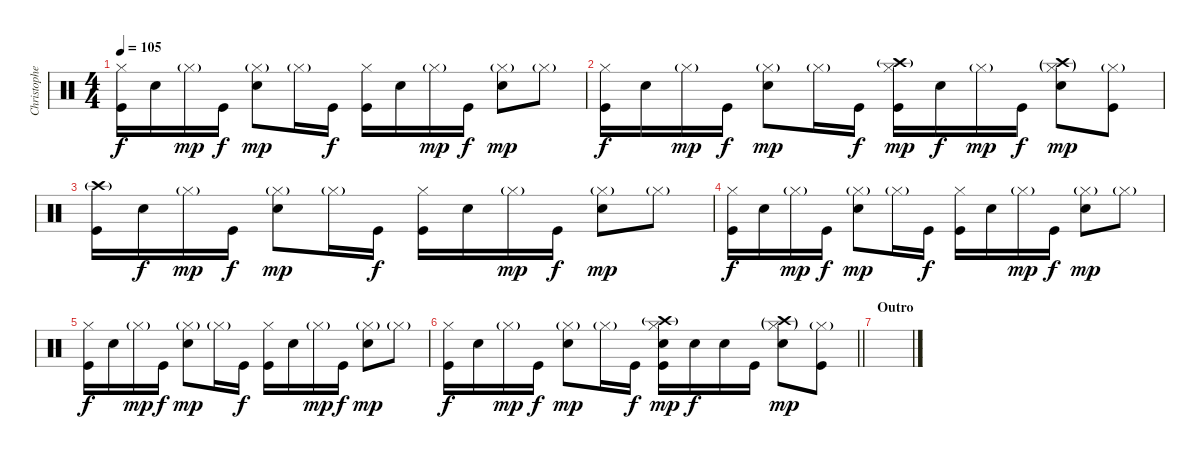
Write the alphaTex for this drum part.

\track ("Christopher - Drums" "Christophe") {mute instrument percussion}
\staff {score}
\articulation defaults
\ts (4 4)
\tempo 105
\clef neutral
\ks c
("Hi-Hat (closed)" "Kick (hit)").16{dy f} "Snare (hit) 2".16 "Hi-Hat (closed)"{g}.16{dy mp} "Kick (hit)".16{dy f} ("Hi-Hat (closed)"{g} "Snare (hit) 2").8{dy mp} "Hi-Hat (closed)"{g}.16 "Kick (hit)".16{dy f} ("Hi-Hat (closed)" "Kick (hit)").16 "Snare (hit) 2".16 "Hi-Hat (closed)"{g}.16{dy mp} "Kick (hit)".16{dy f} ("Hi-Hat (closed)"{g} "Snare (hit) 2").8{dy mp} "Hi-Hat (closed)"{g}.8 |
("Hi-Hat (closed)" "Kick (hit)").16{dy f} "Snare (hit) 2".16 "Hi-Hat (closed)"{g}.16{dy mp} "Kick (hit)".16{dy f} ("Hi-Hat (closed)"{g} "Snare (hit) 2").8{dy mp} "Hi-Hat (closed)"{g}.16 "Kick (hit)".16{dy f} ("Crash high (hit)"{g} "Hi-Hat (closed)" "Kick (hit)").16{dy mp} "Snare (hit) 2".16{dy f} "Hi-Hat (closed)"{g}.16{dy mp} "Kick (hit)".16{dy f} ("Crash high (hit)"{g} "Hi-Hat (closed)"{g} "Snare (hit) 2").8{dy mp} ("Hi-Hat (closed)"{g} "Kick (hit)").8 |
("Crash high (hit)"{g} "Kick (hit)").16 "Snare (hit) 2".16{dy f} "Hi-Hat (closed)"{g}.16{dy mp} "Kick (hit)".16{dy f} ("Hi-Hat (closed)"{g} "Snare (hit) 2").8{dy mp} "Hi-Hat (closed)"{g}.16 "Kick (hit)".16{dy f} ("Hi-Hat (closed)" "Kick (hit)").16 "Snare (hit) 2".16 "Hi-Hat (closed)"{g}.16{dy mp} "Kick (hit)".16{dy f} ("Hi-Hat (closed)"{g} "Snare (hit) 2").8{dy mp} "Hi-Hat (closed)"{g}.8 |
("Hi-Hat (closed)" "Kick (hit)").16{dy f} "Snare (hit) 2".16 "Hi-Hat (closed)"{g}.16{dy mp} "Kick (hit)".16{dy f} ("Hi-Hat (closed)"{g} "Snare (hit) 2").8{dy mp} "Hi-Hat (closed)"{g}.16 "Kick (hit)".16{dy f} ("Hi-Hat (closed)" "Kick (hit)").16 "Snare (hit) 2".16 "Hi-Hat (closed)"{g}.16{dy mp} "Kick (hit)".16{dy f} ("Hi-Hat (closed)"{g} "Snare (hit) 2").8{dy mp} "Hi-Hat (closed)"{g}.8 |
("Hi-Hat (closed)" "Kick (hit)").16{dy f} "Snare (hit) 2".16 "Hi-Hat (closed)"{g}.16{dy mp} "Kick (hit)".16{dy f} ("Hi-Hat (closed)"{g} "Snare (hit) 2").8{dy mp} "Hi-Hat (closed)"{g}.16 "Kick (hit)".16{dy f} ("Hi-Hat (closed)" "Kick (hit)").16 "Snare (hit) 2".16 "Hi-Hat (closed)"{g}.16{dy mp} "Kick (hit)".16{dy f} ("Hi-Hat (closed)"{g} "Snare (hit) 2").8{dy mp} "Hi-Hat (closed)"{g}.8 |
\barLineRight lightlight
("Hi-Hat (closed)" "Kick (hit)").16{dy f} "Snare (hit) 2".16 "Hi-Hat (closed)"{g}.16{dy mp} "Kick (hit)".16{dy f} ("Hi-Hat (closed)"{g} "Snare (hit) 2").8{dy mp} "Hi-Hat (closed)"{g}.16 "Kick (hit)".16{dy f} ("Crash high (hit)"{g} "Hi-Hat (closed)" "Snare (hit) 2" "Kick (hit)").16{dy mp} "Snare (hit) 2".16{dy f} "Snare (hit) 2".16 "Kick (hit)".16 ("Crash high (hit)"{g} "Hi-Hat (closed)"{g} "Snare (hit) 2").8{dy mp} ("Hi-Hat (closed)"{g} "Kick (hit)").8 |
\section ("" "Outro")
